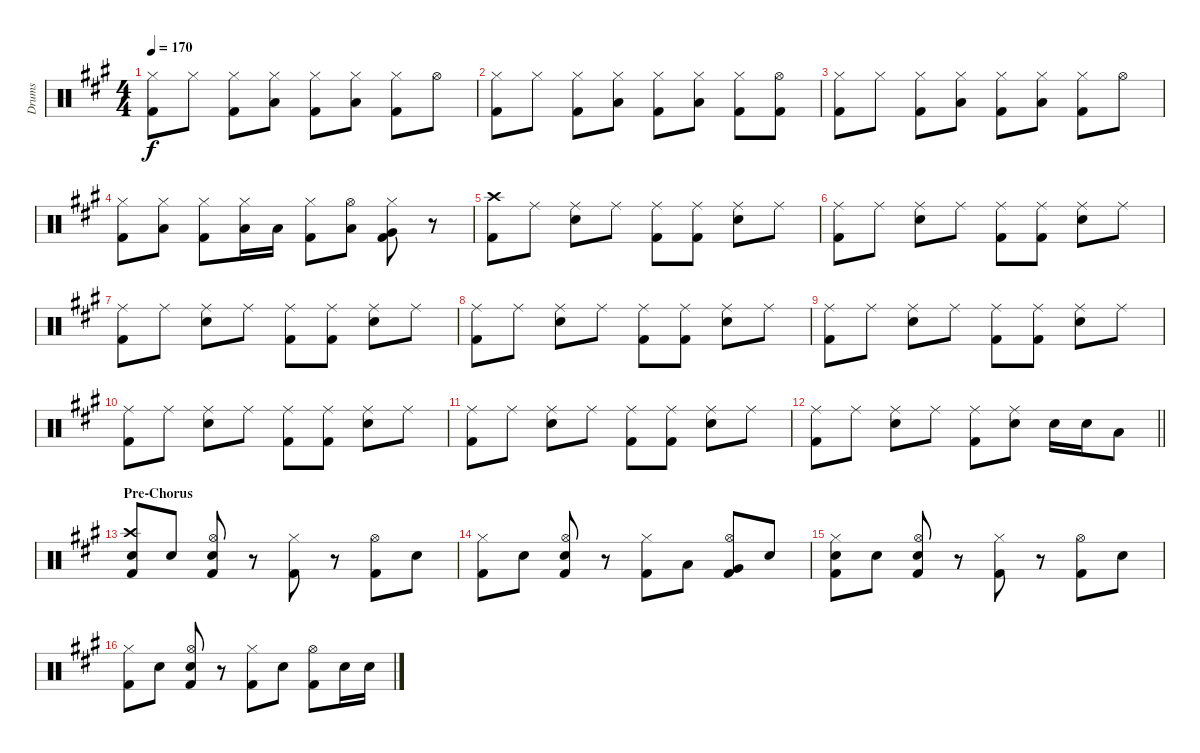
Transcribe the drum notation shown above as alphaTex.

\track ("Drums" "Drums") {instrument percussion}
\staff {score}
\articulation defaults
\ts (4 4)
\tempo 170
\clef neutral
\ks a
("Hi-Hat (closed)" "Kick (hit) 2").8{dy f} "Hi-Hat (closed)".8 ("Hi-Hat (closed)" "Kick (hit) 2").8 ("Hi-Hat (closed)" "Low Tom (hit)").8 ("Hi-Hat (closed)" "Kick (hit) 2").8 ("Hi-Hat (closed)" "Low Tom (hit)").8 ("Hi-Hat (closed)" "Kick (hit) 2").8 "Hi-Hat (open)".8 |
("Hi-Hat (closed)" "Kick (hit) 2").8 "Hi-Hat (closed)".8 ("Hi-Hat (closed)" "Kick (hit) 2").8 ("Hi-Hat (closed)" "Low Tom (hit)").8 ("Hi-Hat (closed)" "Kick (hit) 2").8 ("Hi-Hat (closed)" "Low Tom (hit)").8 ("Hi-Hat (closed)" "Kick (hit) 2").8 ("Hi-Hat (open)" "Kick (hit) 2").8 |
("Hi-Hat (closed)" "Kick (hit) 2").8 "Hi-Hat (closed)".8 ("Hi-Hat (closed)" "Kick (hit) 2").8 ("Hi-Hat (closed)" "Low Tom (hit)").8 ("Hi-Hat (closed)" "Kick (hit) 2").8 ("Hi-Hat (closed)" "Low Tom (hit)").8 ("Hi-Hat (closed)" "Kick (hit) 2").8 "Hi-Hat (open)".8 |
("Hi-Hat (closed)" "Kick (hit) 2").8 ("Hi-Hat (closed)" "Low Tom (hit)").8 ("Hi-Hat (closed)" "Kick (hit) 2").8 ("Hi-Hat (closed)" "Low Tom (hit)").16 "Low Tom (hit)".16 ("Hi-Hat (closed)" "Kick (hit) 2").8 ("Hi-Hat (open)" "Low Tom (hit)").8 ("Hi-Hat (closed)" "Very Low Tom (hit)" "Kick (hit) 2").8 r.8 |
("Crash high (hit)" "Kick (hit) 2").8 "Ride (middle)".8 ("Ride (middle)" "Snare (hit) 2").8 "Ride (middle)".8 ("Ride (middle)" "Kick (hit) 2").8 ("Ride (middle)" "Kick (hit) 2").8 ("Ride (middle)" "Snare (hit) 2").8 "Ride (middle)".8 |
("Ride (middle)" "Kick (hit) 2").8 "Ride (middle)".8 ("Ride (middle)" "Snare (hit) 2").8 "Ride (middle)".8 ("Ride (middle)" "Kick (hit) 2").8 ("Ride (middle)" "Kick (hit) 2").8 ("Ride (middle)" "Snare (hit) 2").8 "Ride (middle)".8 |
("Ride (middle)" "Kick (hit) 2").8 "Ride (middle)".8 ("Ride (middle)" "Snare (hit) 2").8 "Ride (middle)".8 ("Ride (middle)" "Kick (hit) 2").8 ("Ride (middle)" "Kick (hit) 2").8 ("Ride (middle)" "Snare (hit) 2").8 "Ride (middle)".8 |
("Ride (middle)" "Kick (hit) 2").8 "Ride (middle)".8 ("Ride (middle)" "Snare (hit) 2").8 "Ride (middle)".8 ("Ride (middle)" "Kick (hit) 2").8 ("Ride (middle)" "Kick (hit) 2").8 ("Ride (middle)" "Snare (hit) 2").8 "Ride (middle)".8 |
("Ride (middle)" "Kick (hit) 2").8 "Ride (middle)".8 ("Ride (middle)" "Snare (hit) 2").8 "Ride (middle)".8 ("Ride (middle)" "Kick (hit) 2").8 ("Ride (middle)" "Kick (hit) 2").8 ("Ride (middle)" "Snare (hit) 2").8 "Ride (middle)".8 |
("Ride (middle)" "Kick (hit) 2").8 "Ride (middle)".8 ("Ride (middle)" "Snare (hit) 2").8 "Ride (middle)".8 ("Ride (middle)" "Kick (hit) 2").8 ("Ride (middle)" "Kick (hit) 2").8 ("Ride (middle)" "Snare (hit) 2").8 "Ride (middle)".8 |
("Ride (middle)" "Kick (hit) 2").8 "Ride (middle)".8 ("Ride (middle)" "Snare (hit) 2").8 "Ride (middle)".8 ("Ride (middle)" "Kick (hit) 2").8 ("Ride (middle)" "Kick (hit) 2").8 ("Ride (middle)" "Snare (hit) 2").8 "Ride (middle)".8 |
\barLineRight lightlight
("Ride (middle)" "Kick (hit) 2").8 "Ride (middle)".8 ("Ride (middle)" "Snare (hit) 2").8 "Ride (middle)".8 ("Ride (middle)" "Kick (hit) 2").8 ("Ride (middle)" "Snare (hit) 2").8 "Snare (hit) 2".16 "Snare (hit) 2".16 "Low Tom (hit)".8 |
\section ("" "Pre-Chorus")
("Crash high (hit)" "Snare (hit) 2" "Kick (hit) 2").8 "Snare (hit) 2".8 ("Hi-Hat (open)" "Snare (hit) 2" "Kick (hit) 2").8 r.8 ("Hi-Hat (closed)" "Kick (hit) 2").8 r.8 ("Hi-Hat (open)" "Kick (hit) 2").8 "Snare (hit) 2".8 |
("Hi-Hat (closed)" "Kick (hit) 2").8 "Snare (hit) 2".8 ("Hi-Hat (open)" "Snare (hit) 2" "Kick (hit) 2").8 r.8 ("Hi-Hat (closed)" "Kick (hit) 2").8 "Low Tom (hit)".8 ("Hi-Hat (open)" "Very Low Tom (hit)" "Kick (hit) 2").8 "Snare (hit) 2".8 |
("Hi-Hat (closed)" "Snare (hit) 2" "Kick (hit) 2").8 "Snare (hit) 2".8 ("Hi-Hat (open)" "Snare (hit) 2" "Kick (hit) 2").8 r.8 ("Hi-Hat (closed)" "Kick (hit) 2").8 r.8 ("Hi-Hat (open)" "Kick (hit) 2").8 "Snare (hit) 2".8 |
("Hi-Hat (closed)" "Kick (hit) 2").8 "Snare (hit) 2".8 ("Hi-Hat (open)" "Snare (hit) 2" "Kick (hit) 2").8 r.8 ("Hi-Hat (closed)" "Kick (hit) 2").8 "Snare (hit) 2".8 ("Hi-Hat (open)" "Kick (hit) 2").8 "Snare (hit) 2".16 "Snare (hit) 2".16
